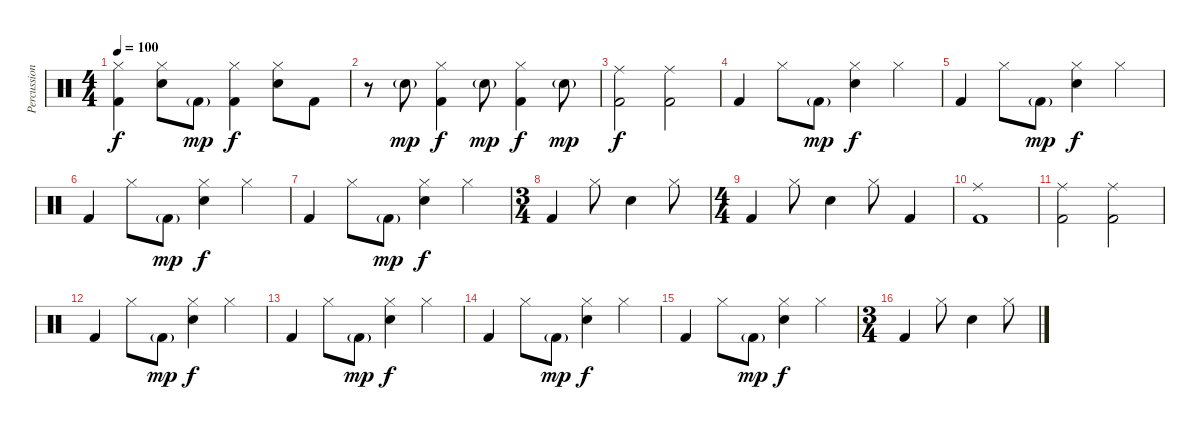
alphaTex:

\track ("Percussion" "Percussion") {instrument percussion}
\staff {score}
\articulation defaults
\ts (4 4)
\tempo 100
\clef neutral
\ks c
("Hi-Hat (closed)" "Kick (hit) 2").4{dy f} ("Hi-Hat (closed)" "Snare (hit) 2").8 "Kick (hit) 2"{g}.8{dy mp} ("Hi-Hat (closed)" "Kick (hit) 2").4{dy f} ("Hi-Hat (closed)" "Snare (hit) 2").8 "Kick (hit) 2".8 |
r.8 "Snare (hit) 2"{g}.8{dy mp} ("Hi-Hat (closed)" "Kick (hit) 2").4{dy f} "Snare (hit) 2"{g}.8{dy mp} ("Hi-Hat (closed)" "Kick (hit) 2").4{dy f} "Snare (hit) 2"{g}.8{dy mp} |
("Ride (middle)" "Kick (hit) 2").2{dy f} ("Ride (middle)" "Kick (hit) 2").2 |
"Kick (hit) 2".4 "Hi-Hat (closed)".8 "Kick (hit) 2"{g}.8{dy mp} ("Hi-Hat (closed)" "Snare (hit) 2").4{dy f} "Hi-Hat (closed)".4 |
"Kick (hit) 2".4 "Hi-Hat (closed)".8 "Kick (hit) 2"{g}.8{dy mp} ("Hi-Hat (closed)" "Snare (hit) 2").4{dy f} "Hi-Hat (closed)".4 |
"Kick (hit) 2".4 "Hi-Hat (closed)".8 "Kick (hit) 2"{g}.8{dy mp} ("Hi-Hat (closed)" "Snare (hit) 2").4{dy f} "Hi-Hat (closed)".4 |
"Kick (hit) 2".4 "Hi-Hat (closed)".8 "Kick (hit) 2"{g}.8{dy mp} ("Hi-Hat (closed)" "Snare (hit) 2").4{dy f} "Hi-Hat (closed)".4 |
\ts (3 4)
"Kick (hit) 2".4 "Hi-Hat (closed)".8 "Snare (hit) 2".4 "Hi-Hat (closed)".8 |
\ts (4 4)
"Kick (hit) 2".4 "Hi-Hat (closed)".8 "Snare (hit) 2".4 "Hi-Hat (closed)".8 "Kick (hit) 2".4 |
("Ride (middle)" "Kick (hit) 2").1 |
("Ride (middle)" "Kick (hit) 2").2 ("Ride (middle)" "Kick (hit) 2").2 |
"Kick (hit) 2".4 "Hi-Hat (closed)".8 "Kick (hit) 2"{g}.8{dy mp} ("Hi-Hat (closed)" "Snare (hit) 2").4{dy f} "Hi-Hat (closed)".4 |
"Kick (hit) 2".4 "Hi-Hat (closed)".8 "Kick (hit) 2"{g}.8{dy mp} ("Hi-Hat (closed)" "Snare (hit) 2").4{dy f} "Hi-Hat (closed)".4 |
"Kick (hit) 2".4 "Hi-Hat (closed)".8 "Kick (hit) 2"{g}.8{dy mp} ("Hi-Hat (closed)" "Snare (hit) 2").4{dy f} "Hi-Hat (closed)".4 |
"Kick (hit) 2".4 "Hi-Hat (closed)".8 "Kick (hit) 2"{g}.8{dy mp} ("Hi-Hat (closed)" "Snare (hit) 2").4{dy f} "Hi-Hat (closed)".4 |
\ts (3 4)
"Kick (hit) 2".4 "Hi-Hat (closed)".8 "Snare (hit) 2".4 "Hi-Hat (closed)".8
